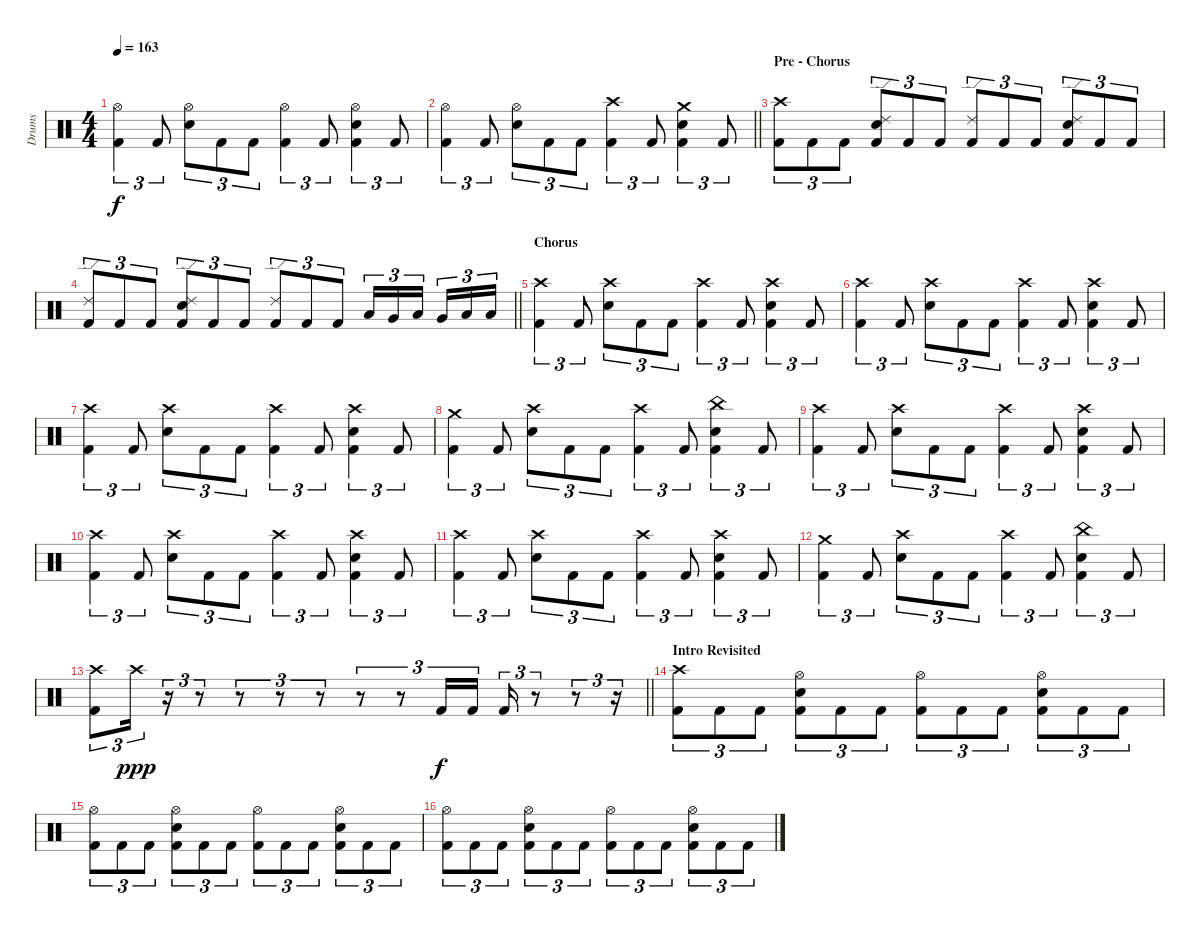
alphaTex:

\track ("Drums" "Drums") {instrument percussion}
\staff {score}
\articulation defaults
\ts (4 4)
\tempo 163
\clef neutral
\ks c
("Hi-Hat (open)" "Kick (hit) 2").4{tu (3 2) dy f} "Kick (hit) 2".8{tu (3 2)} ("Hi-Hat (open)" "Electric Snare (hit)").8{tu (3 2)} "Kick (hit) 2".8{tu (3 2)} "Kick (hit) 2".8{tu (3 2)} ("Hi-Hat (open)" "Kick (hit) 2").4{tu (3 2)} "Kick (hit) 2".8{tu (3 2)} ("Hi-Hat (open)" "Electric Snare (hit)" "Kick (hit) 2").4{tu (3 2)} "Kick (hit) 2".8{tu (3 2)} |
\barLineRight lightlight
("Hi-Hat (open)" "Kick (hit) 2").4{tu (3 2)} "Kick (hit) 2".8{tu (3 2)} ("Hi-Hat (open)" "Electric Snare (hit)").8{tu (3 2)} "Kick (hit) 2".8{tu (3 2)} "Kick (hit) 2".8{tu (3 2)} ("Crash high (hit)" "Kick (hit) 2").4{tu (3 2)} "Kick (hit) 2".8{tu (3 2)} ("Crash medium (hit)" "Electric Snare (hit)" "Kick (hit) 2").4{tu (3 2)} "Kick (hit) 2".8{tu (3 2)} |
\section ("" "Pre - Chorus")
("Crash high (hit)" "Kick (hit) 2").8{tu (3 2)} "Kick (hit) 2".8{tu (3 2)} "Kick (hit) 2".8{tu (3 2)} ("Ride (edge) 2" "Electric Snare (hit)" "Kick (hit) 2").8{tu (3 2)} "Kick (hit) 2".8{tu (3 2)} "Kick (hit) 2".8{tu (3 2)} ("Ride (edge) 2" "Kick (hit) 2").8{tu (3 2)} "Kick (hit) 2".8{tu (3 2)} "Kick (hit) 2".8{tu (3 2)} ("Ride (edge) 2" "Electric Snare (hit)" "Kick (hit) 2").8{tu (3 2)} "Kick (hit) 2".8{tu (3 2)} "Kick (hit) 2".8{tu (3 2)} |
\barLineRight lightlight
("Ride (edge) 2" "Kick (hit) 2").8{tu (3 2)} "Kick (hit) 2".8{tu (3 2)} "Kick (hit) 2".8{tu (3 2)} ("Ride (edge) 2" "Electric Snare (hit)" "Kick (hit) 2").8{tu (3 2)} "Kick (hit) 2".8{tu (3 2)} "Kick (hit) 2".8{tu (3 2)} ("Ride (edge) 2" "Kick (hit) 2").8{tu (3 2)} "Kick (hit) 2".8{tu (3 2)} "Kick (hit) 2".8{tu (3 2)} "Low Tom (hit)".16{tu (3 2)} "Very Low Tom (hit)".16{tu (3 2)} "Low Floor Tom (hit)".16{tu (3 2) beam splitsecondary} "Very Low Tom (hit)".16{tu (3 2)} "Low Floor Tom (hit)".16{tu (3 2)} "Low Floor Tom (hit)".16{tu (3 2)} |
\section ("" "Chorus")
("Crash high (hit)" "Kick (hit) 2").4{tu (3 2)} "Kick (hit) 2".8{tu (3 2)} ("Crash high (hit)" "Electric Snare (hit)").8{tu (3 2)} "Kick (hit) 2".8{tu (3 2)} "Kick (hit) 2".8{tu (3 2)} ("Crash high (hit)" "Kick (hit) 2").4{tu (3 2)} "Kick (hit) 2".8{tu (3 2)} ("Crash high (hit)" "Electric Snare (hit)" "Kick (hit) 2").4{tu (3 2)} "Kick (hit) 2".8{tu (3 2)} |
("Crash high (hit)" "Kick (hit) 2").4{tu (3 2)} "Kick (hit) 2".8{tu (3 2)} ("Crash high (hit)" "Electric Snare (hit)").8{tu (3 2)} "Kick (hit) 2".8{tu (3 2)} "Kick (hit) 2".8{tu (3 2)} ("Crash high (hit)" "Kick (hit) 2").4{tu (3 2)} "Kick (hit) 2".8{tu (3 2)} ("Crash high (hit)" "Electric Snare (hit)" "Kick (hit) 2").4{tu (3 2)} "Kick (hit) 2".8{tu (3 2)} |
("Crash high (hit)" "Kick (hit) 2").4{tu (3 2)} "Kick (hit) 2".8{tu (3 2)} ("Crash high (hit)" "Electric Snare (hit)").8{tu (3 2)} "Kick (hit) 2".8{tu (3 2)} "Kick (hit) 2".8{tu (3 2)} ("Crash high (hit)" "Kick (hit) 2").4{tu (3 2)} "Kick (hit) 2".8{tu (3 2)} ("Crash high (hit)" "Electric Snare (hit)" "Kick (hit) 2").4{tu (3 2)} "Kick (hit) 2".8{tu (3 2)} |
("Crash medium (hit)" "Kick (hit) 2").4{tu (3 2)} "Kick (hit) 2".8{tu (3 2)} ("Crash high (hit)" "Electric Snare (hit)").8{tu (3 2)} "Kick (hit) 2".8{tu (3 2)} "Kick (hit) 2".8{tu (3 2)} ("Crash high (hit)" "Kick (hit) 2").4{tu (3 2)} "Kick (hit) 2".8{tu (3 2)} ("China (hit)" "Electric Snare (hit)" "Kick (hit) 2").4{tu (3 2)} "Kick (hit) 2".8{tu (3 2)} |
("Crash high (hit)" "Kick (hit) 2").4{tu (3 2)} "Kick (hit) 2".8{tu (3 2)} ("Crash high (hit)" "Electric Snare (hit)").8{tu (3 2)} "Kick (hit) 2".8{tu (3 2)} "Kick (hit) 2".8{tu (3 2)} ("Crash high (hit)" "Kick (hit) 2").4{tu (3 2)} "Kick (hit) 2".8{tu (3 2)} ("Crash high (hit)" "Electric Snare (hit)" "Kick (hit) 2").4{tu (3 2)} "Kick (hit) 2".8{tu (3 2)} |
("Crash high (hit)" "Kick (hit) 2").4{tu (3 2)} "Kick (hit) 2".8{tu (3 2)} ("Crash high (hit)" "Electric Snare (hit)").8{tu (3 2)} "Kick (hit) 2".8{tu (3 2)} "Kick (hit) 2".8{tu (3 2)} ("Crash high (hit)" "Kick (hit) 2").4{tu (3 2)} "Kick (hit) 2".8{tu (3 2)} ("Crash high (hit)" "Electric Snare (hit)" "Kick (hit) 2").4{tu (3 2)} "Kick (hit) 2".8{tu (3 2)} |
("Crash high (hit)" "Kick (hit) 2").4{tu (3 2)} "Kick (hit) 2".8{tu (3 2)} ("Crash high (hit)" "Electric Snare (hit)").8{tu (3 2)} "Kick (hit) 2".8{tu (3 2)} "Kick (hit) 2".8{tu (3 2)} ("Crash high (hit)" "Kick (hit) 2").4{tu (3 2)} "Kick (hit) 2".8{tu (3 2)} ("Crash high (hit)" "Electric Snare (hit)" "Kick (hit) 2").4{tu (3 2)} "Kick (hit) 2".8{tu (3 2)} |
("Crash medium (hit)" "Kick (hit) 2").4{tu (3 2)} "Kick (hit) 2".8{tu (3 2)} ("Crash high (hit)" "Electric Snare (hit)").8{tu (3 2)} "Kick (hit) 2".8{tu (3 2)} "Kick (hit) 2".8{tu (3 2)} ("Crash high (hit)" "Kick (hit) 2").4{tu (3 2)} "Kick (hit) 2".8{tu (3 2)} ("China (hit)" "Electric Snare (hit)" "Kick (hit) 2").4{tu (3 2)} "Kick (hit) 2".8{tu (3 2)} |
\barLineRight lightlight
("Crash high (hit)" "Kick (hit) 2").8{tu (3 2)} "Crash high (hit)".16{tu (3 2) dy ppp} r.16{tu (3 2)} r.8{tu (3 2)} r.8{tu (3 2)} r.8{tu (3 2)} r.8{tu (3 2)} r.8{tu (3 2)} r.8{tu (3 2)} "Kick (hit) 2".16{tu (3 2) dy f} "Kick (hit) 2".16{tu (3 2)} "Kick (hit) 2".16{tu (3 2)} r.8{tu (3 2)} r.8{tu (3 2)} r.16{tu (3 2)} |
\section ("" "Intro Revisited")
("Crash high (hit)" "Kick (hit) 2").8{tu (3 2)} "Kick (hit) 2".8{tu (3 2)} "Kick (hit) 2".8{tu (3 2)} ("Hi-Hat (open)" "Electric Snare (hit)" "Kick (hit) 2").8{tu (3 2)} "Kick (hit) 2".8{tu (3 2)} "Kick (hit) 2".8{tu (3 2)} ("Hi-Hat (open)" "Kick (hit) 2").8{tu (3 2)} "Kick (hit) 2".8{tu (3 2)} "Kick (hit) 2".8{tu (3 2)} ("Hi-Hat (open)" "Electric Snare (hit)" "Kick (hit) 2").8{tu (3 2)} "Kick (hit) 2".8{tu (3 2)} "Kick (hit) 2".8{tu (3 2)} |
("Hi-Hat (open)" "Kick (hit) 2").8{tu (3 2)} "Kick (hit) 2".8{tu (3 2)} "Kick (hit) 2".8{tu (3 2)} ("Hi-Hat (open)" "Electric Snare (hit)" "Kick (hit) 2").8{tu (3 2)} "Kick (hit) 2".8{tu (3 2)} "Kick (hit) 2".8{tu (3 2)} ("Hi-Hat (open)" "Kick (hit) 2").8{tu (3 2)} "Kick (hit) 2".8{tu (3 2)} "Kick (hit) 2".8{tu (3 2)} ("Hi-Hat (open)" "Electric Snare (hit)" "Kick (hit) 2").8{tu (3 2)} "Kick (hit) 2".8{tu (3 2)} "Kick (hit) 2".8{tu (3 2)} |
("Hi-Hat (open)" "Kick (hit) 2").8{tu (3 2)} "Kick (hit) 2".8{tu (3 2)} "Kick (hit) 2".8{tu (3 2)} ("Hi-Hat (open)" "Electric Snare (hit)" "Kick (hit) 2").8{tu (3 2)} "Kick (hit) 2".8{tu (3 2)} "Kick (hit) 2".8{tu (3 2)} ("Hi-Hat (open)" "Kick (hit) 2").8{tu (3 2)} "Kick (hit) 2".8{tu (3 2)} "Kick (hit) 2".8{tu (3 2)} ("Hi-Hat (open)" "Electric Snare (hit)" "Kick (hit) 2").8{tu (3 2)} "Kick (hit) 2".8{tu (3 2)} "Kick (hit) 2".8{tu (3 2)}
